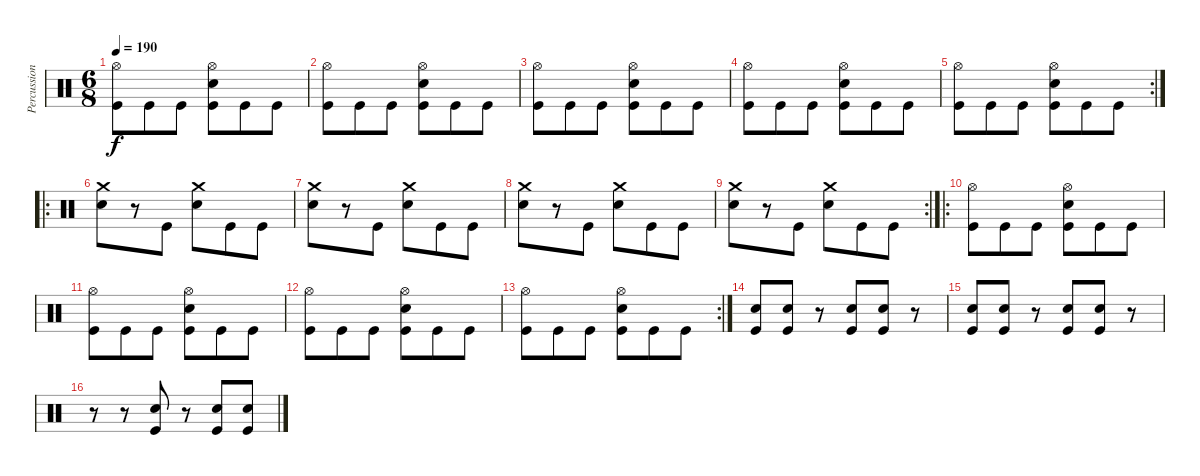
\track ("Percussion" "Percussion") {instrument percussion}
\staff {score}
\articulation defaults
\ts (6 8)
\tempo 190
\clef neutral
\ks c
("Hi-Hat (open)" "Kick (hit)").8{dy f} "Kick (hit)".8 "Kick (hit)".8 ("Hi-Hat (open)" "Snare (hit) 2" "Kick (hit)").8 "Kick (hit)".8 "Kick (hit)".8 |
("Hi-Hat (open)" "Kick (hit)").8 "Kick (hit)".8 "Kick (hit)".8 ("Hi-Hat (open)" "Snare (hit) 2" "Kick (hit)").8 "Kick (hit)".8 "Kick (hit)".8 |
("Hi-Hat (open)" "Kick (hit)").8 "Kick (hit)".8 "Kick (hit)".8 ("Hi-Hat (open)" "Snare (hit) 2" "Kick (hit)").8 "Kick (hit)".8 "Kick (hit)".8 |
("Hi-Hat (open)" "Kick (hit)").8 "Kick (hit)".8 "Kick (hit)".8 ("Hi-Hat (open)" "Snare (hit) 2" "Kick (hit)").8 "Kick (hit)".8 "Kick (hit)".8 |
\rc 2
("Hi-Hat (open)" "Kick (hit)").8 "Kick (hit)".8 "Kick (hit)".8 ("Hi-Hat (open)" "Snare (hit) 2" "Kick (hit)").8 "Kick (hit)".8 "Kick (hit)".8 |
\ro
("Crash medium (hit)" "Snare (hit) 2").8 r.8 "Kick (hit)".8 ("Crash medium (hit)" "Snare (hit) 2").8 "Kick (hit)".8 "Kick (hit)".8 |
("Crash medium (hit)" "Snare (hit) 2").8 r.8 "Kick (hit)".8 ("Crash medium (hit)" "Snare (hit) 2").8 "Kick (hit)".8 "Kick (hit)".8 |
("Crash medium (hit)" "Snare (hit) 2").8 r.8 "Kick (hit)".8 ("Crash medium (hit)" "Snare (hit) 2").8 "Kick (hit)".8 "Kick (hit)".8 |
\rc 2
("Crash medium (hit)" "Snare (hit) 2").8 r.8 "Kick (hit)".8 ("Crash medium (hit)" "Snare (hit) 2").8 "Kick (hit)".8 "Kick (hit)".8 |
\ro
("Hi-Hat (open)" "Kick (hit)").8 "Kick (hit)".8 "Kick (hit)".8 ("Hi-Hat (open)" "Snare (hit) 2" "Kick (hit)").8 "Kick (hit)".8 "Kick (hit)".8 |
("Hi-Hat (open)" "Kick (hit)").8 "Kick (hit)".8 "Kick (hit)".8 ("Hi-Hat (open)" "Snare (hit) 2" "Kick (hit)").8 "Kick (hit)".8 "Kick (hit)".8 |
("Hi-Hat (open)" "Kick (hit)").8 "Kick (hit)".8 "Kick (hit)".8 ("Hi-Hat (open)" "Snare (hit) 2" "Kick (hit)").8 "Kick (hit)".8 "Kick (hit)".8 |
\rc 2
("Hi-Hat (open)" "Kick (hit)").8 "Kick (hit)".8 "Kick (hit)".8 ("Hi-Hat (open)" "Snare (hit) 2" "Kick (hit)").8 "Kick (hit)".8 "Kick (hit)".8 |
("Snare (hit) 2" "Kick (hit)").8 ("Snare (hit) 2" "Kick (hit)").8 r.8 ("Snare (hit) 2" "Kick (hit)").8 ("Snare (hit) 2" "Kick (hit)").8 r.8 |
("Snare (hit) 2" "Kick (hit)").8 ("Snare (hit) 2" "Kick (hit)").8 r.8 ("Snare (hit) 2" "Kick (hit)").8 ("Snare (hit) 2" "Kick (hit)").8 r.8 |
r.8 r.8 ("Snare (hit) 2" "Kick (hit)").8 r.8 ("Snare (hit) 2" "Kick (hit)").8 ("Snare (hit) 2" "Kick (hit)").8
